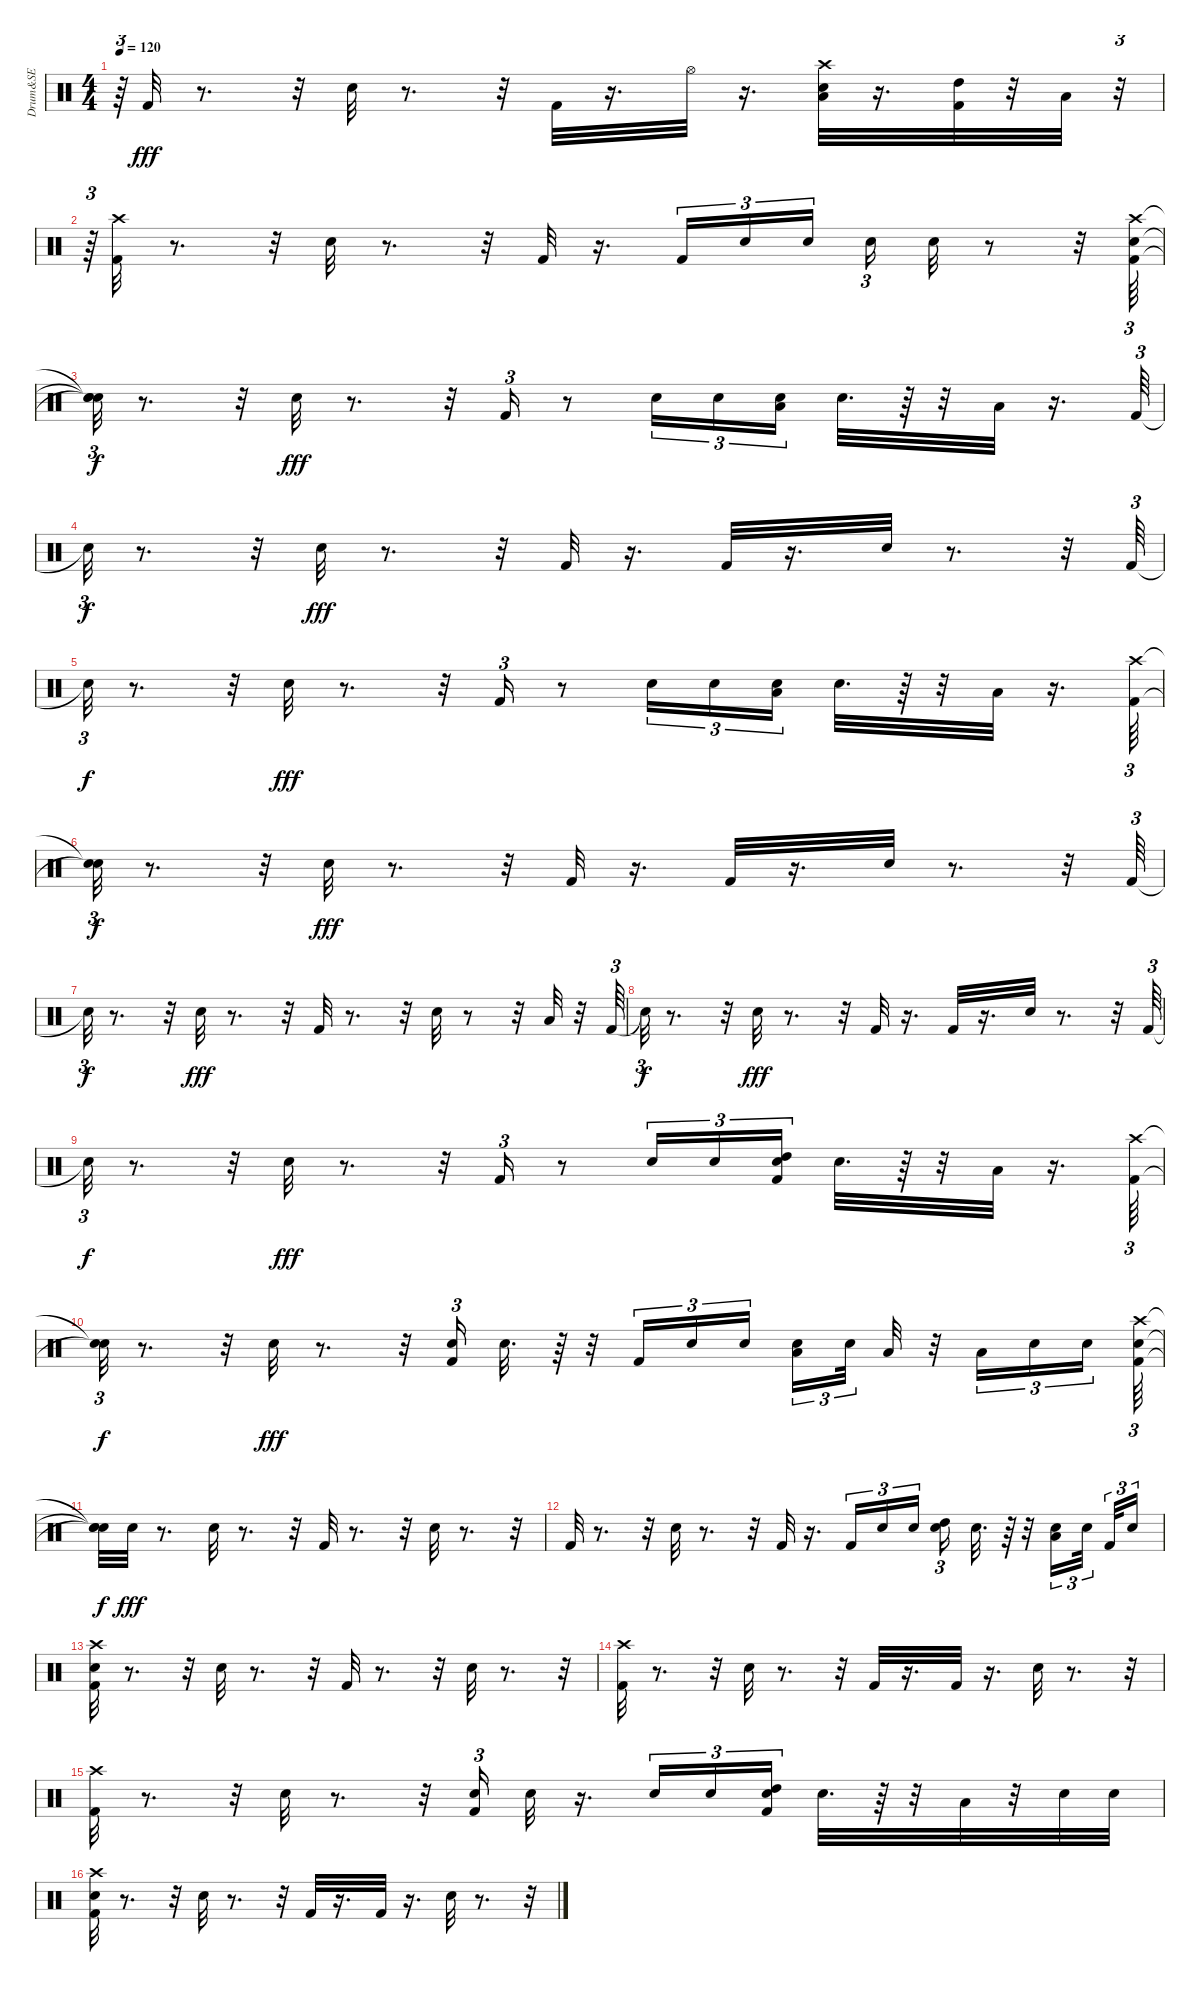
\track ("Drum&SE" "Drum&SE") {instrument percussion}
\staff {score}
\articulation defaults
\ts (4 4)
\tempo 120
\clef neutral
\ks c
r.64{tu (3 2) dy fff} "Kick (hit) 2".32 r.8{d} r.32 "Snare (hit) 2".32 r.8{d} r.32 "Kick (hit) 2".32 r.16{d} "Hi-Hat (open)".32 r.16{d} ("Snare (hit) 2" "Low Tom (hit)" "Crash high (hit)").32 r.16{d} ("Kick (hit) 2" "High Tom (hit)").32 r.32 "Low Floor Tom (hit)".32 r.32{tu (3 2)} |
r.64{tu (3 2)} ("Kick (hit) 2" "Crash high (hit)").32 r.8{d} r.32 "Snare (hit) 2".32 r.8{d} r.32 "Kick (hit) 2".32 r.16{d} "Kick (hit) 2".16{tu (3 2)} "Snare (hit) 2".16{tu (3 2)} "Snare (hit) 2".16{tu (3 2)} "Snare (hit) 2".16{tu (3 2)} "Snare (hit) 2".32 r.8 r.32 ("Kick (hit) 2" "Snare (hit) 2" "Crash high (hit)").64{tu (3 2)} |
("Snare (hit)"{t} "Snare (hit)"{t} "Snare (hit)"{t}).32{tu (3 2) dy f} r.8{d} r.32 "Snare (hit) 2".32{dy fff} r.8{d} r.32 "Kick (hit) 2".16{tu (3 2)} r.8 "Snare (hit) 2".16{tu (3 2)} "Snare (hit) 2".16{tu (3 2)} ("Snare (hit) 2" "Low Tom (hit)").16{tu (3 2)} "Snare (hit) 2".32{d} r.64 r.32 "Low Floor Tom (hit)".32 r.16{d} "Kick (hit) 2".64{tu (3 2)} |
"Snare (hit)"{t}.32{tu (3 2) dy f} r.8{d} r.32 "Snare (hit) 2".32{dy fff} r.8{d} r.32 "Kick (hit) 2".32 r.16{d} "Kick (hit) 2".32 r.16{d} "Snare (hit) 2".32 r.8{d} r.32 "Kick (hit) 2".64{tu (3 2)} |
"Snare (hit)"{t}.32{tu (3 2) dy f} r.8{d} r.32 "Snare (hit) 2".32{dy fff} r.8{d} r.32 "Kick (hit) 2".16{tu (3 2)} r.8 "Snare (hit) 2".16{tu (3 2)} "Snare (hit) 2".16{tu (3 2)} ("Snare (hit) 2" "Low Tom (hit)").16{tu (3 2)} "Snare (hit) 2".32{d} r.64 r.32 "Low Floor Tom (hit)".32 r.16{d} ("Kick (hit) 2" "Crash high (hit)").64{tu (3 2)} |
("Snare (hit)"{t} "Snare (hit)"{t}).32{tu (3 2) dy f} r.8{d} r.32 "Snare (hit) 2".32{dy fff} r.8{d} r.32 "Kick (hit) 2".32 r.16{d} "Kick (hit) 2".32 r.16{d} "Snare (hit) 2".32 r.8{d} r.32 "Kick (hit) 2".64{tu (3 2)} |
"Snare (hit)"{t}.32{tu (3 2) dy f} r.8{d} r.32 "Snare (hit) 2".32{dy fff} r.8{d} r.32 "Kick (hit) 2".32 r.8{d} r.32 "Snare (hit) 2".32 r.8 r.32 "Low Floor Tom (hit)".32 r.32 "Kick (hit) 2".64{tu (3 2)} |
"Snare (hit)"{t}.32{tu (3 2) dy f} r.8{d} r.32 "Snare (hit) 2".32{dy fff} r.8{d} r.32 "Kick (hit) 2".32 r.16{d} "Kick (hit) 2".32 r.16{d} "Snare (hit) 2".32 r.8{d} r.32 "Kick (hit) 2".64{tu (3 2)} |
"Snare (hit)"{t}.32{tu (3 2) dy f} r.8{d} r.32 "Snare (hit) 2".32{dy fff} r.8{d} r.32 "Kick (hit) 2".16{tu (3 2)} r.8 "Snare (hit) 2".16{tu (3 2)} "Snare (hit) 2".16{tu (3 2)} ("Kick (hit) 2" "Snare (hit) 2" "High Tom (hit)").16{tu (3 2)} "Snare (hit) 2".32{d} r.64 r.32 "Low Floor Tom (hit)".32 r.16{d} ("Kick (hit) 2" "Crash high (hit)").64{tu (3 2)} |
("Snare (hit)"{t} "Snare (hit)"{t}).32{tu (3 2) dy f} r.8{d} r.32 "Snare (hit) 2".32{dy fff} r.8{d} r.32 ("Kick (hit) 2" "Snare (hit) 2").16{tu (3 2)} "Snare (hit) 2".32{d} r.64 r.32 "Kick (hit) 2".16{tu (3 2)} "Snare (hit) 2".16{tu (3 2)} "Snare (hit) 2".16{tu (3 2)} ("Snare (hit) 2" "Low Floor Tom (hit)").16{tu (3 2)} "Snare (hit) 2".32{tu (3 2)} "Low Tom (hit)".32 r.32 "Low Floor Tom (hit)".16{tu (3 2)} "Snare (hit) 2".16{tu (3 2)} "Snare (hit) 2".16{tu (3 2)} ("Kick (hit) 2" "Snare (hit) 2" "Crash high (hit)").64{tu (3 2)} |
("Snare (hit)"{t} "Snare (hit)"{t} "Snare (hit)"{t}).32{dy f} "Snare (hit) 2".32{dy fff} r.8{d} "Snare (hit) 2".32 r.8{d} r.32 "Kick (hit) 2".32 r.8{d} r.32 "Snare (hit) 2".32 r.8{d} r.32 |
"Kick (hit) 2".32 r.8{d} r.32 "Snare (hit) 2".32 r.8{d} r.32 "Kick (hit) 2".32 r.16{d} "Kick (hit) 2".16{tu (3 2)} "Snare (hit) 2".16{tu (3 2)} "Snare (hit) 2".16{tu (3 2)} ("Snare (hit) 2" "High Tom (hit)").16{tu (3 2)} "Snare (hit) 2".32{d} r.64 r.32 ("Snare (hit) 2" "Low Floor Tom (hit)").16{tu (3 2)} "Snare (hit) 2".32{tu (3 2)} "Kick (hit) 2".32{tu (3 2)} "Snare (hit) 2".16{tu (3 2)} |
("Kick (hit) 2" "Snare (hit) 2" "Crash high (hit)").32 r.8{d} r.32 "Snare (hit) 2".32 r.8{d} r.32 "Kick (hit) 2".32 r.8{d} r.32 "Snare (hit) 2".32 r.8{d} r.32 |
("Kick (hit) 2" "Crash high (hit)").32 r.8{d} r.32 "Snare (hit) 2".32 r.8{d} r.32 "Kick (hit) 2".32 r.16{d} "Kick (hit) 2".32 r.16{d} "Snare (hit) 2".32 r.8{d} r.32 |
("Kick (hit) 2" "Crash high (hit)").32 r.8{d} r.32 "Snare (hit) 2".32 r.8{d} r.32 ("Kick (hit) 2" "Snare (hit) 2").16{tu (3 2)} "Snare (hit) 2".32 r.16{d} "Snare (hit) 2".16{tu (3 2)} "Snare (hit) 2".16{tu (3 2)} ("Kick (hit) 2" "Snare (hit) 2" "High Tom (hit)").16{tu (3 2)} "Snare (hit) 2".32{d} r.64 r.32 "Low Floor Tom (hit)".32 r.32 "Snare (hit) 2".32 "Snare (hit) 2".32 |
("Kick (hit) 2" "Snare (hit) 2" "Crash high (hit)").32 r.8{d} r.32 "Snare (hit) 2".32 r.8{d} r.32 "Kick (hit) 2".32 r.16{d} "Kick (hit) 2".32 r.16{d} "Snare (hit) 2".32 r.8{d} r.32
